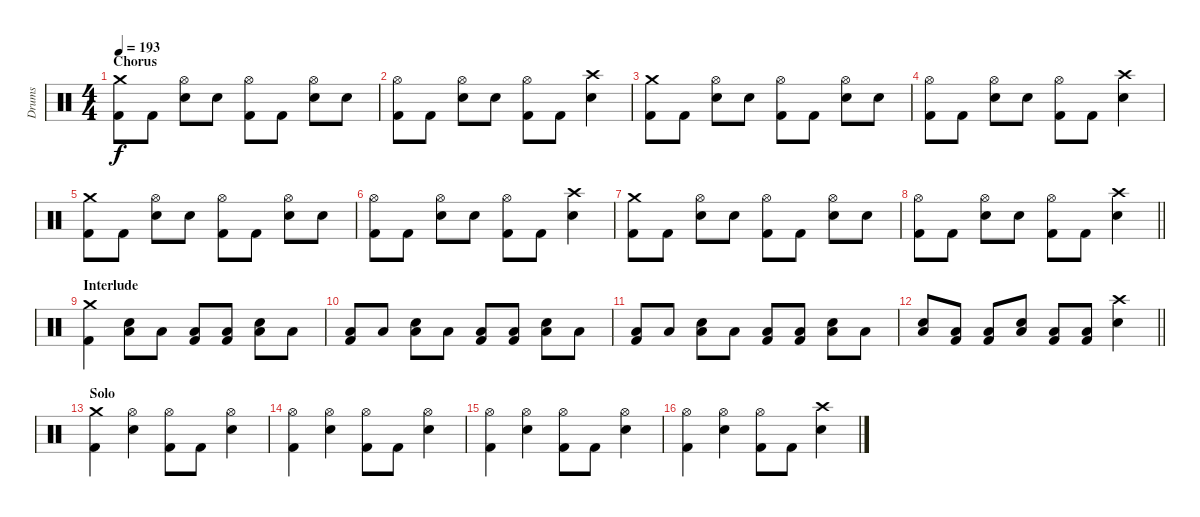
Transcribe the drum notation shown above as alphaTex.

\track ("Drums" "Drums") {instrument percussion}
\staff {score}
\articulation defaults
\ts (4 4)
\section ("" "Chorus")
\tempo 193
\clef neutral
\ks c
("Crash medium (hit)" "Kick (hit) 2").8{dy f} "Kick (hit) 2".8 ("Hi-Hat (open)" "Electric Snare (hit)").8 "Electric Snare (hit)".8 ("Hi-Hat (open)" "Kick (hit) 2").8 "Kick (hit) 2".8 ("Hi-Hat (open)" "Electric Snare (hit)").8 "Electric Snare (hit)".8 |
("Hi-Hat (open)" "Kick (hit) 2").8 "Kick (hit) 2".8 ("Hi-Hat (open)" "Electric Snare (hit)").8 "Electric Snare (hit)".8 ("Hi-Hat (open)" "Kick (hit) 2").8 "Kick (hit) 2".8 ("Crash high (hit)" "Electric Snare (hit)").4 |
("Crash medium (hit)" "Kick (hit) 2").8 "Kick (hit) 2".8 ("Hi-Hat (open)" "Electric Snare (hit)").8 "Electric Snare (hit)".8 ("Hi-Hat (open)" "Kick (hit) 2").8 "Kick (hit) 2".8 ("Hi-Hat (open)" "Electric Snare (hit)").8 "Electric Snare (hit)".8 |
("Hi-Hat (open)" "Kick (hit) 2").8 "Kick (hit) 2".8 ("Hi-Hat (open)" "Electric Snare (hit)").8 "Electric Snare (hit)".8 ("Hi-Hat (open)" "Kick (hit) 2").8 "Kick (hit) 2".8 ("Crash high (hit)" "Electric Snare (hit)").4 |
("Crash medium (hit)" "Kick (hit) 2").8 "Kick (hit) 2".8 ("Hi-Hat (open)" "Electric Snare (hit)").8 "Electric Snare (hit)".8 ("Hi-Hat (open)" "Kick (hit) 2").8 "Kick (hit) 2".8 ("Hi-Hat (open)" "Electric Snare (hit)").8 "Electric Snare (hit)".8 |
("Hi-Hat (open)" "Kick (hit) 2").8 "Kick (hit) 2".8 ("Hi-Hat (open)" "Electric Snare (hit)").8 "Electric Snare (hit)".8 ("Hi-Hat (open)" "Kick (hit) 2").8 "Kick (hit) 2".8 ("Crash high (hit)" "Electric Snare (hit)").4 |
("Crash medium (hit)" "Kick (hit) 2").8 "Kick (hit) 2".8 ("Hi-Hat (open)" "Electric Snare (hit)").8 "Electric Snare (hit)".8 ("Hi-Hat (open)" "Kick (hit) 2").8 "Kick (hit) 2".8 ("Hi-Hat (open)" "Electric Snare (hit)").8 "Electric Snare (hit)".8 |
\barLineRight lightlight
("Hi-Hat (open)" "Kick (hit) 2").8 "Kick (hit) 2".8 ("Hi-Hat (open)" "Electric Snare (hit)").8 "Electric Snare (hit)".8 ("Hi-Hat (open)" "Kick (hit) 2").8 "Kick (hit) 2".8 ("Crash high (hit)" "Electric Snare (hit)").4 |
\section ("" "Interlude")
("Crash medium (hit)" "Kick (hit) 2").4 ("Low Floor Tom (hit)" "Electric Snare (hit)").8 "Low Floor Tom (hit)".8 ("Low Floor Tom (hit)" "Kick (hit) 2").8 ("Low Floor Tom (hit)" "Kick (hit) 2").8 ("Low Floor Tom (hit)" "Electric Snare (hit)").8 "Low Floor Tom (hit)".8 |
("Low Floor Tom (hit)" "Kick (hit) 2").8 "Low Floor Tom (hit)".8 ("Low Floor Tom (hit)" "Electric Snare (hit)").8 "Low Floor Tom (hit)".8 ("Low Floor Tom (hit)" "Kick (hit) 2").8 ("Low Floor Tom (hit)" "Kick (hit) 2").8 ("Low Floor Tom (hit)" "Electric Snare (hit)").8 "Low Floor Tom (hit)".8 |
("Low Floor Tom (hit)" "Kick (hit) 2").8 "Low Floor Tom (hit)".8 ("Low Floor Tom (hit)" "Electric Snare (hit)").8 "Low Floor Tom (hit)".8 ("Low Floor Tom (hit)" "Kick (hit) 2").8 ("Low Floor Tom (hit)" "Kick (hit) 2").8 ("Low Floor Tom (hit)" "Electric Snare (hit)").8 "Low Floor Tom (hit)".8 |
\barLineRight lightlight
("Low Floor Tom (hit)" "Electric Snare (hit)").8 ("Low Floor Tom (hit)" "Kick (hit) 2").8 ("Low Floor Tom (hit)" "Kick (hit) 2").8 ("Low Floor Tom (hit)" "Electric Snare (hit)").8 ("Low Floor Tom (hit)" "Kick (hit) 2").8 ("Low Floor Tom (hit)" "Kick (hit) 2").8 ("Crash high (hit)" "Electric Snare (hit)").4 |
\section ("" "Solo")
("Crash medium (hit)" "Kick (hit) 2").4 ("Hi-Hat (open)" "Electric Snare (hit)").4 ("Hi-Hat (open)" "Kick (hit) 2").8 "Kick (hit) 2".8 ("Hi-Hat (open)" "Electric Snare (hit)").4 |
("Hi-Hat (open)" "Kick (hit) 2").4 ("Hi-Hat (open)" "Electric Snare (hit)").4 ("Hi-Hat (open)" "Kick (hit) 2").8 "Kick (hit) 2".8 ("Hi-Hat (open)" "Electric Snare (hit)").4 |
("Hi-Hat (open)" "Kick (hit) 2").4 ("Hi-Hat (open)" "Electric Snare (hit)").4 ("Hi-Hat (open)" "Kick (hit) 2").8 "Kick (hit) 2".8 ("Hi-Hat (open)" "Electric Snare (hit)").4 |
("Hi-Hat (open)" "Kick (hit) 2").4 ("Hi-Hat (open)" "Electric Snare (hit)").4 ("Hi-Hat (open)" "Kick (hit) 2").8 "Kick (hit) 2".8 ("Crash high (hit)" "Electric Snare (hit)").4
